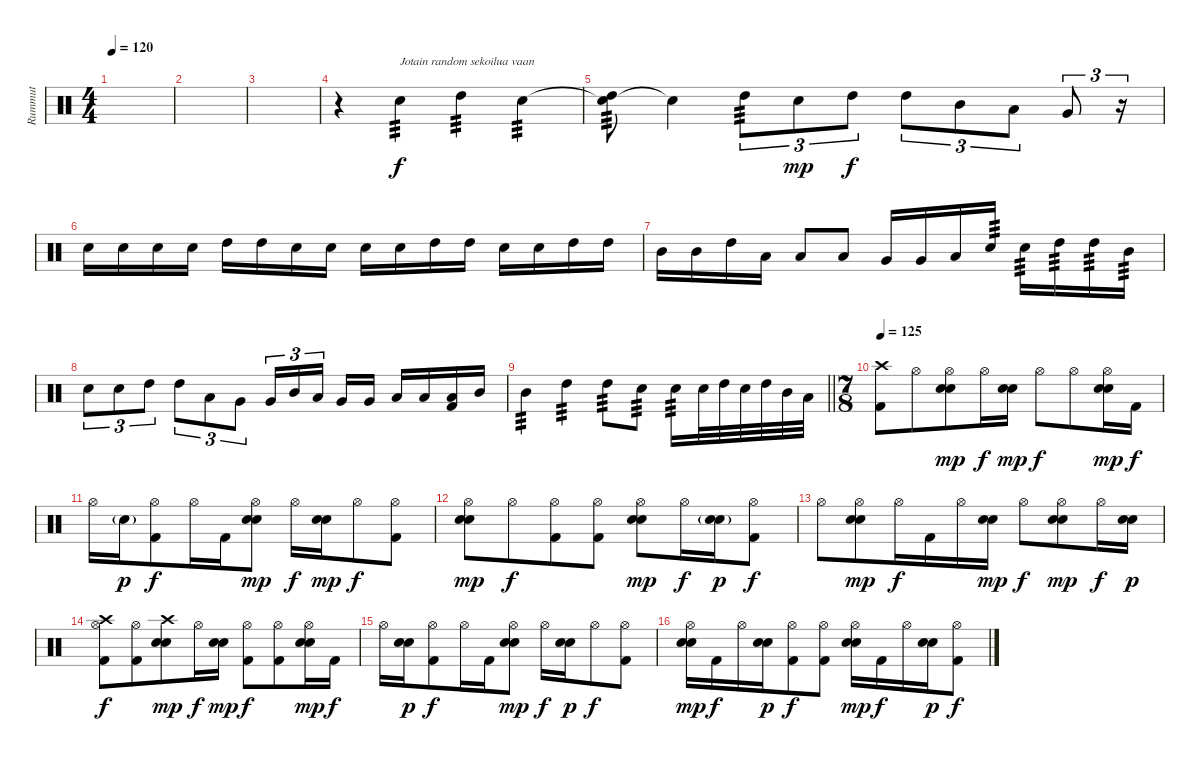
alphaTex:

\track ("Rummut" "Rummut") {instrument percussion}
\staff {score}
\articulation defaults
\ts (4 4)
\tempo 120
\clef neutral
\ks c
|
|
|
r.4 "Electric Snare (hit)".4{txt "Jotain random sekoilua vaan" tp 3} "High Tom (hit)".4{tp 3} "Electric Snare (hit)".4{tp 3} |
("Snare (hit)"{t} "High Tom (hit)").8{tp 3 volume 9 balance 11} "Snare (hit)"{t}.4 "High Tom (hit)".8{tu (3 2) tp 3} "Electric Snare (hit)".8{tu (3 2) dy mp} "High Tom (hit)".8{tu (3 2) dy f} "High Tom (hit)".8{tu (3 2)} "Mid Tom (hit)".8{tu (3 2)} "Low Tom (hit)".8{tu (3 2)} "Very Low Tom (hit)".8{tu (3 2)} r.16{tu (3 2)} |
"Electric Snare (hit)".16 "Electric Snare (hit)".16 "Electric Snare (hit)".16 "Electric Snare (hit)".16 "High Tom (hit)".16 "High Tom (hit)".16 "Electric Snare (hit)".16 "Electric Snare (hit)".16 "Electric Snare (hit)".16{balance 4} "Electric Snare (hit)".16 "High Tom (hit)".16 "High Tom (hit)".16 "Electric Snare (hit)".16 "Electric Snare (hit)".16 "High Tom (hit)".16 "High Tom (hit)".16 |
"Mid Tom (hit)".16 "Mid Tom (hit)".16 "High Tom (hit)".16 "Low Tom (hit)".16 "Low Tom (hit)".8{volume 13 balance 13} "Low Tom (hit)".8 "Very Low Tom (hit)".16 "Very Low Tom (hit)".16 "Low Floor Tom (hit)".16 "Electric Snare (hit)".16{tp 3} "Electric Snare (hit)".16{tp 3} "High Tom (hit)".16{tp 3} "High Tom (hit)".16{tp 3} "Mid Tom (hit)".16{tp 3} |
"Electric Snare (hit)".8{tu (3 2)} "Electric Snare (hit)".8{tu (3 2)} "High Tom (hit)".8{tu (3 2)} "High Tom (hit)".8{tu (3 2)} "Low Tom (hit)".8{tu (3 2)} "Very Low Tom (hit)".8{tu (3 2)} "Very Low Tom (hit)".16{tu (3 2)} "Mid Tom (hit)".16{tu (3 2)} "Low Tom (hit)".16{tu (3 2) beam splitsecondary} "Very Low Tom (hit)".16 "Very Low Tom (hit)".16 "Low Floor Tom (hit)".16{balance 8} "Low Floor Tom (hit)".16 ("Low Tom (hit)" "Kick (hit) 2").16 "Mid Tom (hit)".16 |
\barLineRight lightlight "Mid Tom (hit)".4{tp 3} "High Tom (hit)".4{tp 3} "High Tom (hit)".8{tp 3} "Electric Snare (hit)".8{tp 3} "Electric Snare (hit)".16{tp 3} "Electric Snare (hit)".32 "High Tom (hit)".32 "Electric Snare (hit)".32 "High Tom (hit)".32 "Mid Tom (hit)".32 "Low Tom (hit)".32
|
\ts (7 8)
\section ("" "")
\tempo 125
("Crash high (hit)" "Kick (hit) 2").8{volume 13 balance 8} "Hi-Hat (open)".8 ("Hi-Hat (open)" "Electric Snare (hit)" "Snare (hit) 2").8{dy mp} "Hi-Hat (open)".16{dy f} ("Electric Snare (hit)" "Snare (hit) 2").16{dy mp} "Hi-Hat (open)".8{dy f} "Hi-Hat (open)".8 ("Hi-Hat (open)" "Electric Snare (hit)" "Snare (hit) 2").16{dy mp} "Kick (hit) 2".16{dy f} |
"Hi-Hat (open)".16 "Snare (hit) 2"{g}.16{dy p} ("Hi-Hat (open)" "Kick (hit) 2").8{dy f} "Hi-Hat (open)".16 "Kick (hit) 2".16 ("Hi-Hat (open)" "Electric Snare (hit)" "Snare (hit) 2").8{dy mp} "Hi-Hat (open)".16{dy f} ("Electric Snare (hit)" "Snare (hit) 2").16{dy mp} "Hi-Hat (open)".8{dy f} ("Hi-Hat (open)" "Kick (hit) 2").8 |
("Hi-Hat (open)" "Electric Snare (hit)" "Snare (hit) 2").8{dy mp} "Hi-Hat (open)".8{dy f} ("Hi-Hat (open)" "Kick (hit) 2").8 ("Hi-Hat (open)" "Kick (hit) 2").8 ("Hi-Hat (open)" "Electric Snare (hit)" "Snare (hit) 2").8{dy mp} "Hi-Hat (open)".16{dy f} ("Electric Snare (hit)"{g} "Snare (hit) 2"{g}).16{dy p} ("Hi-Hat (open)" "Kick (hit) 2").8{dy f} |
"Hi-Hat (open)".8 ("Hi-Hat (open)" "Electric Snare (hit)" "Snare (hit) 2").8{dy mp} "Hi-Hat (open)".16{dy f} "Kick (hit) 2".16 "Hi-Hat (open)".16 ("Electric Snare (hit)" "Snare (hit) 2").16{dy mp} "Hi-Hat (open)".8{dy f} ("Hi-Hat (open)" "Electric Snare (hit)" "Snare (hit) 2").8{dy mp} "Hi-Hat (open)".16{dy f} ("Electric Snare (hit)" "Snare (hit) 2").16{dy p} |
("Crash high (hit)" "Hi-Hat (open)" "Kick (hit) 2").8{dy f} ("Hi-Hat (open)" "Kick (hit) 2").8 ("Crash high (hit)" "Electric Snare (hit)" "Snare (hit) 2").8{dy mp} "Hi-Hat (open)".16{dy f} ("Electric Snare (hit)" "Snare (hit) 2").16{dy mp} ("Hi-Hat (open)" "Kick (hit) 2").8{dy f} ("Hi-Hat (open)" "Kick (hit) 2").8 ("Hi-Hat (open)" "Electric Snare (hit)" "Snare (hit) 2").16{dy mp} "Kick (hit) 2".16{dy f} |
"Hi-Hat (open)".16 ("Electric Snare (hit)" "Snare (hit) 2").16{dy p} ("Hi-Hat (open)" "Kick (hit) 2").8{dy f} "Hi-Hat (open)".16 "Kick (hit) 2".16 ("Hi-Hat (open)" "Electric Snare (hit)" "Snare (hit) 2").8{dy mp} "Hi-Hat (open)".16{dy f} ("Electric Snare (hit)" "Snare (hit) 2").16{dy p} "Hi-Hat (open)".8{dy f} ("Hi-Hat (open)" "Kick (hit) 2").8 |
("Hi-Hat (open)" "Electric Snare (hit)" "Snare (hit) 2").16{dy mp} "Kick (hit) 2".16{dy f} "Hi-Hat (open)".16 ("Electric Snare (hit)" "Snare (hit) 2").16{dy p} ("Hi-Hat (open)" "Kick (hit) 2").8{dy f} ("Hi-Hat (open)" "Kick (hit) 2").8 ("Hi-Hat (open)" "Electric Snare (hit)" "Snare (hit) 2").16{dy mp} "Kick (hit) 2".16{dy f} "Hi-Hat (open)".16 ("Electric Snare (hit)" "Snare (hit) 2").16{dy p} ("Hi-Hat (open)" "Kick (hit) 2").8{dy f}
